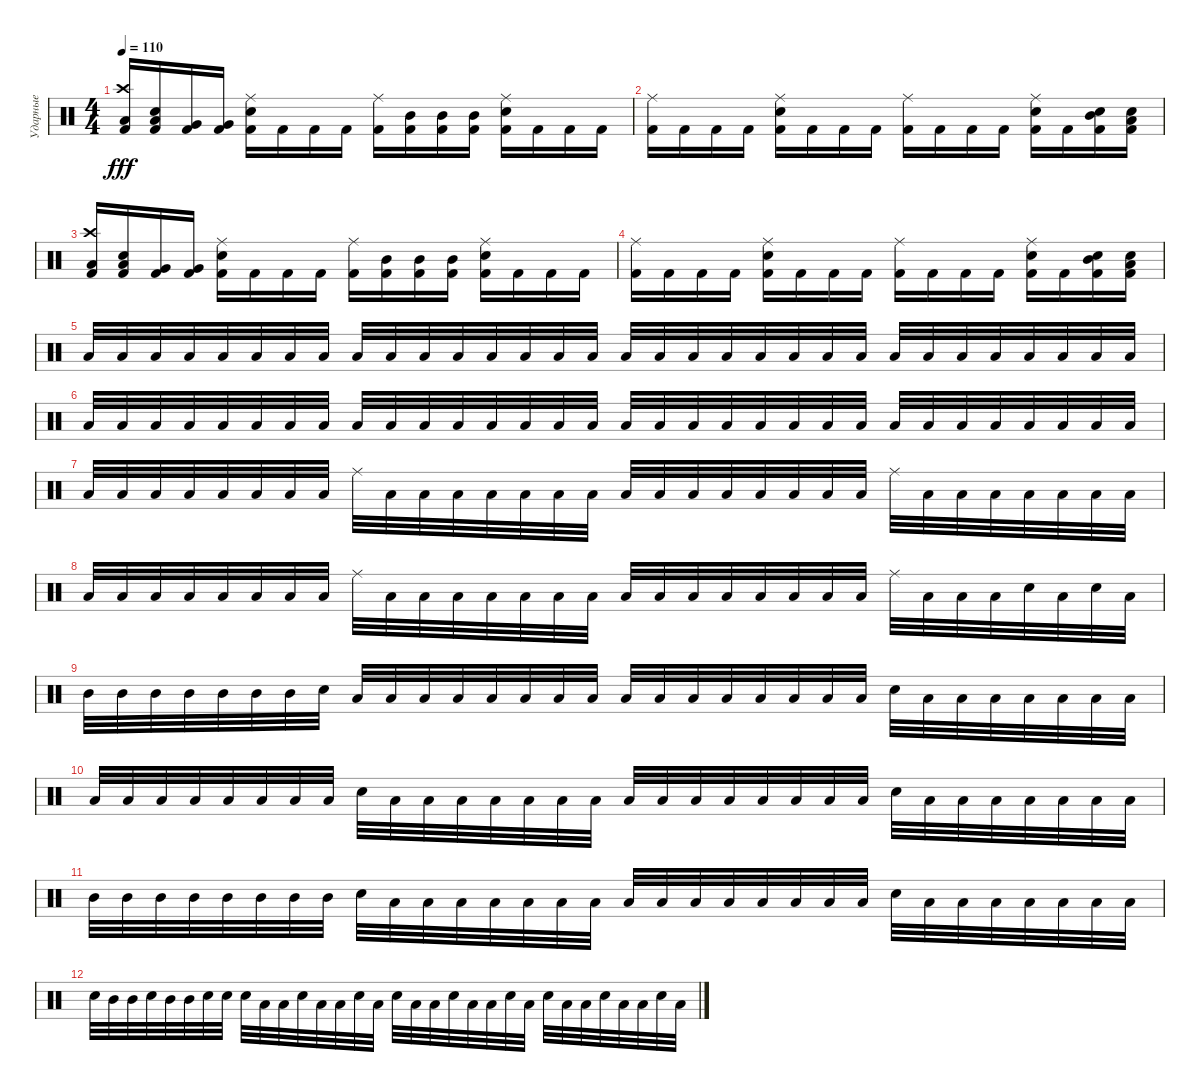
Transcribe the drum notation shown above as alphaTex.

\track ("Ударные" "Ударные") {instrument percussion}
\staff {score}
\articulation defaults
\ts (4 4)
\tempo 110
\clef neutral
\ks c
("Kick (hit) 2" "Crash high (hit)" "Low Floor Tom (hit)").16{dy fff} ("Kick (hit) 2" "Snare (hit) 2" "Low Floor Tom (hit)").16 ("Kick (hit) 2" "Very Low Tom (hit)").16 ("Kick (hit) 2" "Very Low Tom (hit)").16 ("Kick (hit) 2" "Snare (hit) 2" "Ride (middle)").16 "Kick (hit) 2".16 "Kick (hit) 2".16 "Kick (hit) 2".16 ("Kick (hit) 2" "Ride (middle)").16 ("Kick (hit) 2" "Mid Tom (hit)").16 ("Kick (hit) 2" "Mid Tom (hit)").16 ("Kick (hit) 2" "Mid Tom (hit)").16 ("Kick (hit) 2" "Snare (hit) 2" "Ride (middle)").16 "Kick (hit) 2".16 "Kick (hit) 2".16 "Kick (hit) 2".16 |
("Kick (hit) 2" "Ride (middle)").16 "Kick (hit) 2".16 "Kick (hit) 2".16 "Kick (hit) 2".16 ("Kick (hit) 2" "Snare (hit) 2" "Ride (middle)").16 "Kick (hit) 2".16 "Kick (hit) 2".16 "Kick (hit) 2".16 ("Kick (hit) 2" "Ride (middle)").16 "Kick (hit) 2".16 "Kick (hit) 2".16 "Kick (hit) 2".16 ("Kick (hit) 2" "Snare (hit) 2" "Ride (middle)").16 "Kick (hit) 2".16 ("Kick (hit) 2" "Snare (hit) 2" "Mid Tom (hit)").16 ("Kick (hit) 2" "Snare (hit) 2" "Low Tom (hit)").16 |
("Kick (hit) 2" "Crash high (hit)" "Low Floor Tom (hit)").16 ("Kick (hit) 2" "Snare (hit) 2" "Low Floor Tom (hit)").16 ("Kick (hit) 2" "Very Low Tom (hit)").16 ("Kick (hit) 2" "Very Low Tom (hit)").16 ("Kick (hit) 2" "Snare (hit) 2" "Ride (middle)").16 "Kick (hit) 2".16 "Kick (hit) 2".16 "Kick (hit) 2".16 ("Kick (hit) 2" "Ride (middle)").16 ("Kick (hit) 2" "Mid Tom (hit)").16 ("Kick (hit) 2" "Mid Tom (hit)").16 ("Kick (hit) 2" "Mid Tom (hit)").16 ("Kick (hit) 2" "Snare (hit) 2" "Ride (middle)").16 "Kick (hit) 2".16 "Kick (hit) 2".16 "Kick (hit) 2".16 |
("Kick (hit) 2" "Ride (middle)").16 "Kick (hit) 2".16 "Kick (hit) 2".16 "Kick (hit) 2".16 ("Kick (hit) 2" "Snare (hit) 2" "Ride (middle)").16 "Kick (hit) 2".16 "Kick (hit) 2".16 "Kick (hit) 2".16 ("Kick (hit) 2" "Ride (middle)").16 "Kick (hit) 2".16 "Kick (hit) 2".16 "Kick (hit) 2".16 ("Kick (hit) 2" "Snare (hit) 2" "Ride (middle)").16 "Kick (hit) 2".16 ("Kick (hit) 2" "Snare (hit) 2" "Mid Tom (hit)").16 ("Kick (hit) 2" "Snare (hit) 2" "Low Tom (hit)").16 |
"Low Floor Tom (hit)".32 "Low Floor Tom (hit)".32 "Low Floor Tom (hit)".32 "Low Floor Tom (hit)".32 "Low Floor Tom (hit)".32 "Low Floor Tom (hit)".32 "Low Floor Tom (hit)".32 "Low Floor Tom (hit)".32 "Low Floor Tom (hit)".32 "Low Floor Tom (hit)".32 "Low Floor Tom (hit)".32 "Low Floor Tom (hit)".32 "Low Floor Tom (hit)".32 "Low Floor Tom (hit)".32 "Low Floor Tom (hit)".32 "Low Floor Tom (hit)".32 "Low Floor Tom (hit)".32 "Low Floor Tom (hit)".32 "Low Floor Tom (hit)".32 "Low Floor Tom (hit)".32 "Low Floor Tom (hit)".32 "Low Floor Tom (hit)".32 "Low Floor Tom (hit)".32 "Low Floor Tom (hit)".32 "Low Floor Tom (hit)".32 "Low Floor Tom (hit)".32 "Low Floor Tom (hit)".32 "Low Floor Tom (hit)".32 "Low Floor Tom (hit)".32 "Low Floor Tom (hit)".32 "Low Floor Tom (hit)".32 "Low Floor Tom (hit)".32 |
"Low Floor Tom (hit)".32 "Low Floor Tom (hit)".32 "Low Floor Tom (hit)".32 "Low Floor Tom (hit)".32 "Low Floor Tom (hit)".32 "Low Floor Tom (hit)".32 "Low Floor Tom (hit)".32 "Low Floor Tom (hit)".32 "Low Floor Tom (hit)".32 "Low Floor Tom (hit)".32 "Low Floor Tom (hit)".32 "Low Floor Tom (hit)".32 "Low Floor Tom (hit)".32 "Low Floor Tom (hit)".32 "Low Floor Tom (hit)".32 "Low Floor Tom (hit)".32 "Low Floor Tom (hit)".32 "Low Floor Tom (hit)".32 "Low Floor Tom (hit)".32 "Low Floor Tom (hit)".32 "Low Floor Tom (hit)".32 "Low Floor Tom (hit)".32 "Low Floor Tom (hit)".32 "Low Floor Tom (hit)".32 "Low Floor Tom (hit)".32 "Low Floor Tom (hit)".32 "Low Floor Tom (hit)".32 "Low Floor Tom (hit)".32 "Low Floor Tom (hit)".32 "Low Floor Tom (hit)".32 "Low Floor Tom (hit)".32 "Low Floor Tom (hit)".32 |
"Low Floor Tom (hit)".32 "Low Floor Tom (hit)".32 "Low Floor Tom (hit)".32 "Low Floor Tom (hit)".32 "Low Floor Tom (hit)".32 "Low Floor Tom (hit)".32 "Low Floor Tom (hit)".32 "Low Floor Tom (hit)".32 "Ride (middle)".32 "Low Floor Tom (hit)".32 "Low Floor Tom (hit)".32 "Low Floor Tom (hit)".32 "Low Floor Tom (hit)".32 "Low Floor Tom (hit)".32 "Low Floor Tom (hit)".32 "Low Floor Tom (hit)".32 "Low Floor Tom (hit)".32 "Low Floor Tom (hit)".32 "Low Floor Tom (hit)".32 "Low Floor Tom (hit)".32 "Low Floor Tom (hit)".32 "Low Floor Tom (hit)".32 "Low Floor Tom (hit)".32 "Low Floor Tom (hit)".32 "Ride (middle)".32 "Low Floor Tom (hit)".32 "Low Floor Tom (hit)".32 "Low Floor Tom (hit)".32 "Low Floor Tom (hit)".32 "Low Floor Tom (hit)".32 "Low Floor Tom (hit)".32 "Low Floor Tom (hit)".32 |
"Low Floor Tom (hit)".32 "Low Floor Tom (hit)".32 "Low Floor Tom (hit)".32 "Low Floor Tom (hit)".32 "Low Floor Tom (hit)".32 "Low Floor Tom (hit)".32 "Low Floor Tom (hit)".32 "Low Floor Tom (hit)".32 "Ride (middle)".32 "Low Floor Tom (hit)".32 "Low Floor Tom (hit)".32 "Low Floor Tom (hit)".32 "Low Floor Tom (hit)".32 "Low Floor Tom (hit)".32 "Low Floor Tom (hit)".32 "Low Floor Tom (hit)".32 "Low Floor Tom (hit)".32 "Low Floor Tom (hit)".32 "Low Floor Tom (hit)".32 "Low Floor Tom (hit)".32 "Low Floor Tom (hit)".32 "Low Floor Tom (hit)".32 "Low Floor Tom (hit)".32 "Low Floor Tom (hit)".32 "Ride (middle)".32 "Low Floor Tom (hit)".32 "Low Floor Tom (hit)".32 "Low Floor Tom (hit)".32 "Snare (hit) 2".32 "Low Floor Tom (hit)".32 "Snare (hit) 2".32 "Low Floor Tom (hit)".32 |
"Mid Tom (hit)".32 "Mid Tom (hit)".32 "Mid Tom (hit)".32 "Mid Tom (hit)".32 "Mid Tom (hit)".32 "Mid Tom (hit)".32 "Mid Tom (hit)".32 "Snare (hit) 2".32 "Low Tom (hit)".32 "Low Tom (hit)".32 "Low Tom (hit)".32 "Low Tom (hit)".32 "Low Tom (hit)".32 "Low Tom (hit)".32 "Low Tom (hit)".32 "Low Tom (hit)".32 "Low Floor Tom (hit)".32 "Low Floor Tom (hit)".32 "Low Floor Tom (hit)".32 "Low Floor Tom (hit)".32 "Low Floor Tom (hit)".32 "Low Floor Tom (hit)".32 "Low Floor Tom (hit)".32 "Low Floor Tom (hit)".32 "Snare (hit) 2".32 "Low Tom (hit)".32 "Low Tom (hit)".32 "Low Tom (hit)".32 "Low Tom (hit)".32 "Low Tom (hit)".32 "Low Tom (hit)".32 "Low Tom (hit)".32 |
"Low Floor Tom (hit)".32 "Low Floor Tom (hit)".32 "Low Floor Tom (hit)".32 "Low Floor Tom (hit)".32 "Low Floor Tom (hit)".32 "Low Floor Tom (hit)".32 "Low Floor Tom (hit)".32 "Low Floor Tom (hit)".32 "Snare (hit) 2".32 "Low Floor Tom (hit)".32 "Low Floor Tom (hit)".32 "Low Floor Tom (hit)".32 "Low Floor Tom (hit)".32 "Low Floor Tom (hit)".32 "Low Floor Tom (hit)".32 "Low Floor Tom (hit)".32 "Low Floor Tom (hit)".32 "Low Floor Tom (hit)".32 "Low Floor Tom (hit)".32 "Low Floor Tom (hit)".32 "Low Floor Tom (hit)".32 "Low Floor Tom (hit)".32 "Low Floor Tom (hit)".32 "Low Floor Tom (hit)".32 "Snare (hit) 2".32 "Low Floor Tom (hit)".32 "Low Floor Tom (hit)".32 "Low Floor Tom (hit)".32 "Low Floor Tom (hit)".32 "Low Floor Tom (hit)".32 "Low Floor Tom (hit)".32 "Low Floor Tom (hit)".32 |
"Mid Tom (hit)".32 "Mid Tom (hit)".32 "Mid Tom (hit)".32 "Mid Tom (hit)".32 "Mid Tom (hit)".32 "Mid Tom (hit)".32 "Mid Tom (hit)".32 "Mid Tom (hit)".32 "Snare (hit) 2".32 "Low Tom (hit)".32 "Low Tom (hit)".32 "Low Tom (hit)".32 "Low Tom (hit)".32 "Low Tom (hit)".32 "Low Tom (hit)".32 "Low Tom (hit)".32 "Low Floor Tom (hit)".32 "Low Floor Tom (hit)".32 "Low Floor Tom (hit)".32 "Low Floor Tom (hit)".32 "Low Floor Tom (hit)".32 "Low Floor Tom (hit)".32 "Low Floor Tom (hit)".32 "Low Floor Tom (hit)".32 "Snare (hit) 2".32 "Low Tom (hit)".32 "Low Tom (hit)".32 "Low Tom (hit)".32 "Low Tom (hit)".32 "Low Tom (hit)".32 "Low Tom (hit)".32 "Low Tom (hit)".32 |
"Snare (hit) 2".32 "Mid Tom (hit)".32 "Mid Tom (hit)".32 "Snare (hit) 2".32 "Mid Tom (hit)".32 "Mid Tom (hit)".32 "Snare (hit) 2".32 "Snare (hit) 2".32 "Snare (hit) 2".32 "Low Tom (hit)".32 "Low Tom (hit)".32 "Snare (hit) 2".32 "Low Tom (hit)".32 "Low Tom (hit)".32 "Snare (hit) 2".32 "Low Tom (hit)".32 "Snare (hit) 2".32 "Low Floor Tom (hit)".32 "Low Floor Tom (hit)".32 "Snare (hit) 2".32 "Low Floor Tom (hit)".32 "Low Floor Tom (hit)".32 "Snare (hit) 2".32 "Low Floor Tom (hit)".32 "Snare (hit) 2".32 "Low Tom (hit)".32 "Low Tom (hit)".32 "Snare (hit) 2".32 "Low Tom (hit)".32 "Low Tom (hit)".32 "Snare (hit) 2".32 "Low Tom (hit)".32
